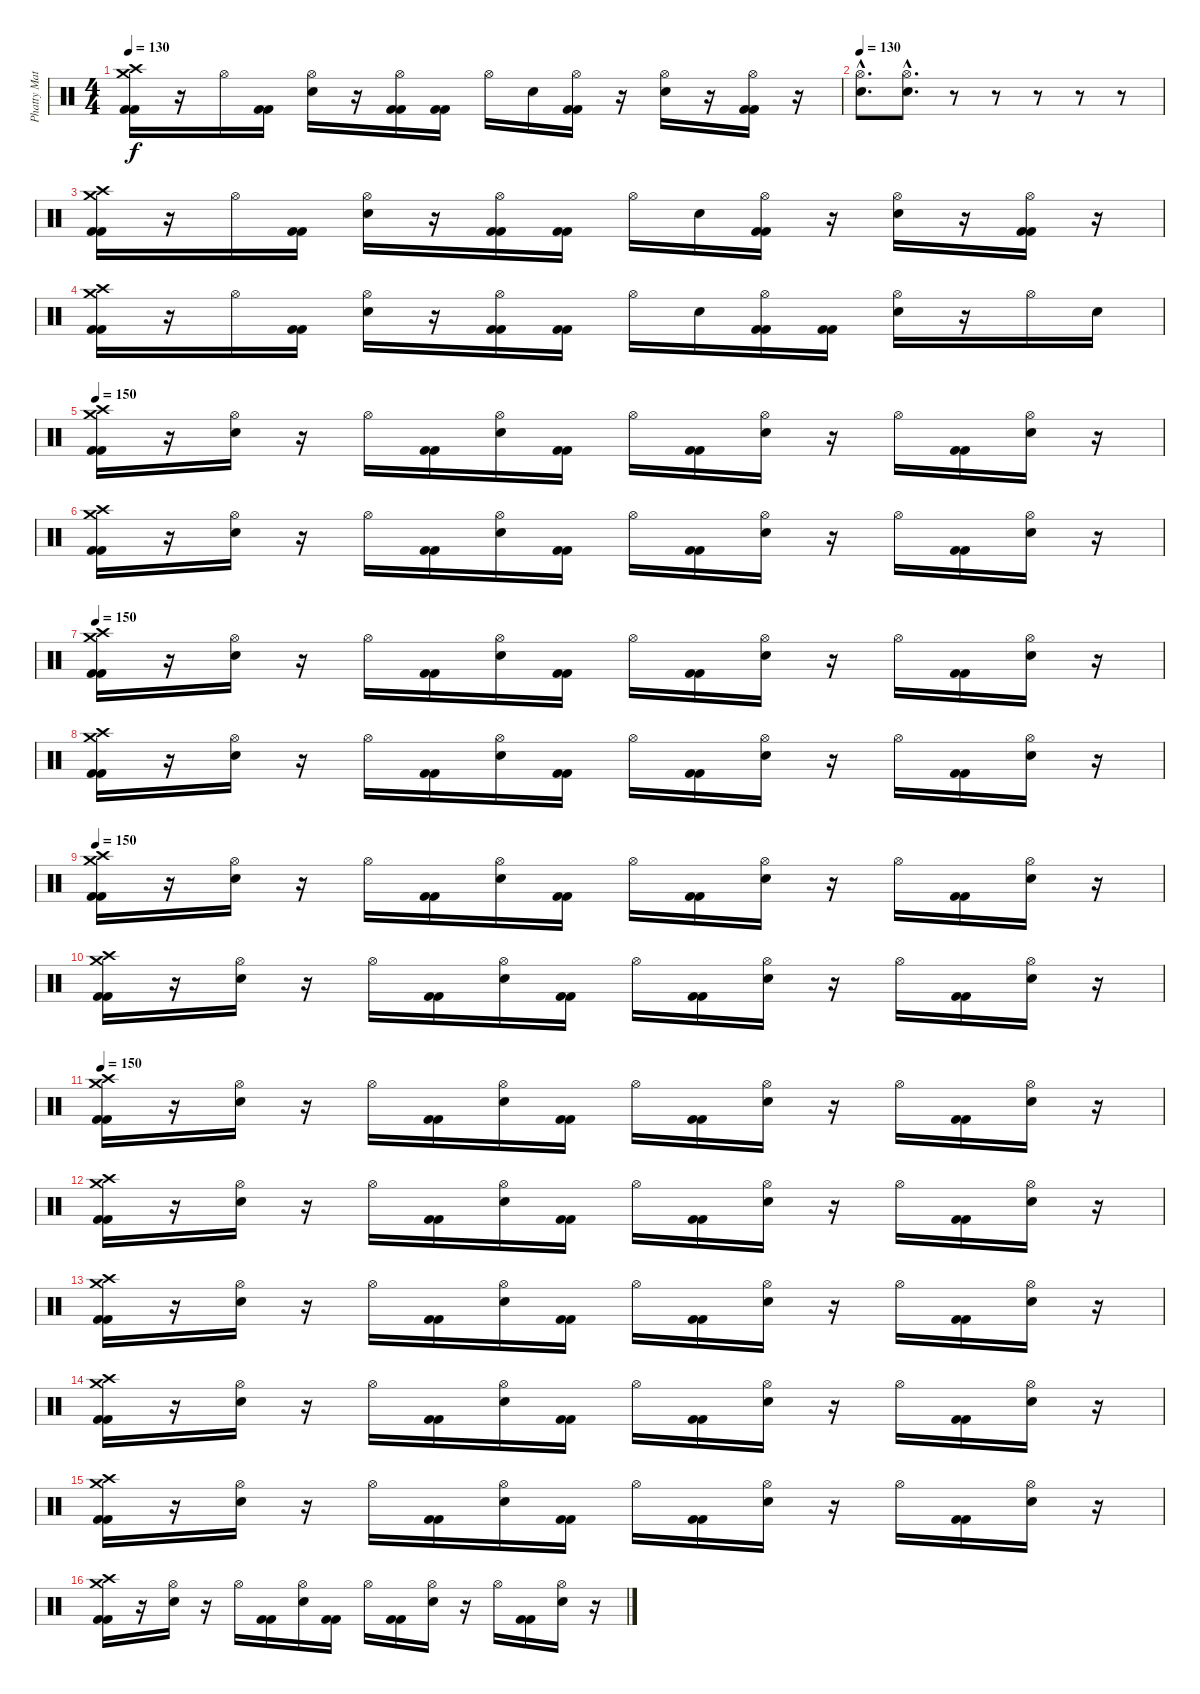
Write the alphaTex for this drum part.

\track ("Phatty Matty Withrow (Drums)" "Phatty Mat") {instrument percussion}
\staff {score}
\articulation defaults
\ts (4 4)
\tempo 130
\clef neutral
\ks c
("Crash high (hit)" "Crash medium (hit)" "Kick (hit) 2" "Kick (hit) 2").16{dy f} r.16 "Hi-Hat (open)".16 ("Kick (hit) 2" "Kick (hit) 2").16 ("Hi-Hat (open)" "Electric Snare (hit)").16 r.16 ("Hi-Hat (open)" "Kick (hit) 2" "Kick (hit) 2").16 ("Kick (hit) 2" "Kick (hit) 2").16 "Hi-Hat (open)".16 "Electric Snare (hit)".16 ("Hi-Hat (open)" "Kick (hit) 2" "Kick (hit) 2").16 r.16 ("Hi-Hat (open)" "Electric Snare (hit)").16 r.16 ("Hi-Hat (open)" "Kick (hit) 2" "Kick (hit) 2").16 r.16 |
\tempo 130
("Hi-Hat (open)"{hac} "Electric Snare (hit)"{hac}).8{d} ("Hi-Hat (open)"{hac} "Electric Snare (hit)"{hac}).8{d} r.8 r.8 r.8 r.8 r.8 |
("Crash high (hit)" "Crash medium (hit)" "Kick (hit) 2" "Kick (hit) 2").16 r.16 "Hi-Hat (open)".16 ("Kick (hit) 2" "Kick (hit) 2").16 ("Hi-Hat (open)" "Electric Snare (hit)").16 r.16 ("Hi-Hat (open)" "Kick (hit) 2" "Kick (hit) 2").16 ("Kick (hit) 2" "Kick (hit) 2").16 "Hi-Hat (open)".16 "Electric Snare (hit)".16 ("Hi-Hat (open)" "Kick (hit) 2" "Kick (hit) 2").16 r.16 ("Hi-Hat (open)" "Electric Snare (hit)").16 r.16 ("Hi-Hat (open)" "Kick (hit) 2" "Kick (hit) 2").16 r.16 |
("Crash high (hit)" "Crash medium (hit)" "Kick (hit) 2" "Kick (hit) 2").16 r.16 "Hi-Hat (open)".16 ("Kick (hit) 2" "Kick (hit) 2").16 ("Hi-Hat (open)" "Electric Snare (hit)").16 r.16 ("Hi-Hat (open)" "Kick (hit) 2" "Kick (hit) 2").16 ("Kick (hit) 2" "Kick (hit) 2").16 "Hi-Hat (open)".16 "Electric Snare (hit)".16 ("Hi-Hat (open)" "Kick (hit) 2" "Kick (hit) 2").16 ("Kick (hit) 2" "Kick (hit) 2").16 ("Hi-Hat (open)" "Electric Snare (hit)").16 r.16 "Hi-Hat (open)".16 "Electric Snare (hit)".16 |
\tempo 150
("Crash high (hit)" "Crash medium (hit)" "Kick (hit) 2" "Kick (hit) 2").16 r.16 ("Hi-Hat (open)" "Electric Snare (hit)").16 r.16 "Hi-Hat (open)".16 ("Kick (hit) 2" "Kick (hit) 2").16 ("Hi-Hat (open)" "Electric Snare (hit)").16 ("Kick (hit) 2" "Kick (hit) 2").16 "Hi-Hat (open)".16 ("Kick (hit) 2" "Kick (hit) 2").16 ("Hi-Hat (open)" "Electric Snare (hit)").16 r.16 "Hi-Hat (open)".16 ("Kick (hit) 2" "Kick (hit) 2").16 ("Hi-Hat (open)" "Electric Snare (hit)").16 r.16 |
("Crash high (hit)" "Crash medium (hit)" "Kick (hit) 2" "Kick (hit) 2").16 r.16 ("Hi-Hat (open)" "Electric Snare (hit)").16 r.16 "Hi-Hat (open)".16 ("Kick (hit) 2" "Kick (hit) 2").16 ("Hi-Hat (open)" "Electric Snare (hit)").16 ("Kick (hit) 2" "Kick (hit) 2").16 "Hi-Hat (open)".16 ("Kick (hit) 2" "Kick (hit) 2").16 ("Hi-Hat (open)" "Electric Snare (hit)").16 r.16 "Hi-Hat (open)".16 ("Kick (hit) 2" "Kick (hit) 2").16 ("Hi-Hat (open)" "Electric Snare (hit)").16 r.16 |
\tempo 150
("Crash high (hit)" "Crash medium (hit)" "Kick (hit) 2" "Kick (hit) 2").16 r.16 ("Hi-Hat (open)" "Electric Snare (hit)").16 r.16 "Hi-Hat (open)".16 ("Kick (hit) 2" "Kick (hit) 2").16 ("Hi-Hat (open)" "Electric Snare (hit)").16 ("Kick (hit) 2" "Kick (hit) 2").16 "Hi-Hat (open)".16 ("Kick (hit) 2" "Kick (hit) 2").16 ("Hi-Hat (open)" "Electric Snare (hit)").16 r.16 "Hi-Hat (open)".16 ("Kick (hit) 2" "Kick (hit) 2").16 ("Hi-Hat (open)" "Electric Snare (hit)").16 r.16 |
("Crash high (hit)" "Crash medium (hit)" "Kick (hit) 2" "Kick (hit) 2").16 r.16 ("Hi-Hat (open)" "Electric Snare (hit)").16 r.16 "Hi-Hat (open)".16 ("Kick (hit) 2" "Kick (hit) 2").16 ("Hi-Hat (open)" "Electric Snare (hit)").16 ("Kick (hit) 2" "Kick (hit) 2").16 "Hi-Hat (open)".16 ("Kick (hit) 2" "Kick (hit) 2").16 ("Hi-Hat (open)" "Electric Snare (hit)").16 r.16 "Hi-Hat (open)".16 ("Kick (hit) 2" "Kick (hit) 2").16 ("Hi-Hat (open)" "Electric Snare (hit)").16 r.16 |
\tempo 150
("Crash high (hit)" "Crash medium (hit)" "Kick (hit) 2" "Kick (hit) 2").16 r.16 ("Hi-Hat (open)" "Electric Snare (hit)").16 r.16 "Hi-Hat (open)".16 ("Kick (hit) 2" "Kick (hit) 2").16 ("Hi-Hat (open)" "Electric Snare (hit)").16 ("Kick (hit) 2" "Kick (hit) 2").16 "Hi-Hat (open)".16 ("Kick (hit) 2" "Kick (hit) 2").16 ("Hi-Hat (open)" "Electric Snare (hit)").16 r.16 "Hi-Hat (open)".16 ("Kick (hit) 2" "Kick (hit) 2").16 ("Hi-Hat (open)" "Electric Snare (hit)").16 r.16 |
("Crash high (hit)" "Crash medium (hit)" "Kick (hit) 2" "Kick (hit) 2").16 r.16 ("Hi-Hat (open)" "Electric Snare (hit)").16 r.16 "Hi-Hat (open)".16 ("Kick (hit) 2" "Kick (hit) 2").16 ("Hi-Hat (open)" "Electric Snare (hit)").16 ("Kick (hit) 2" "Kick (hit) 2").16 "Hi-Hat (open)".16 ("Kick (hit) 2" "Kick (hit) 2").16 ("Hi-Hat (open)" "Electric Snare (hit)").16 r.16 "Hi-Hat (open)".16 ("Kick (hit) 2" "Kick (hit) 2").16 ("Hi-Hat (open)" "Electric Snare (hit)").16 r.16 |
\tempo 150
("Crash high (hit)" "Crash medium (hit)" "Kick (hit) 2" "Kick (hit) 2").16 r.16 ("Hi-Hat (open)" "Electric Snare (hit)").16 r.16 "Hi-Hat (open)".16 ("Kick (hit) 2" "Kick (hit) 2").16 ("Hi-Hat (open)" "Electric Snare (hit)").16 ("Kick (hit) 2" "Kick (hit) 2").16 "Hi-Hat (open)".16 ("Kick (hit) 2" "Kick (hit) 2").16 ("Hi-Hat (open)" "Electric Snare (hit)").16 r.16 "Hi-Hat (open)".16 ("Kick (hit) 2" "Kick (hit) 2").16 ("Hi-Hat (open)" "Electric Snare (hit)").16 r.16 |
("Crash high (hit)" "Crash medium (hit)" "Kick (hit) 2" "Kick (hit) 2").16 r.16 ("Hi-Hat (open)" "Electric Snare (hit)").16 r.16 "Hi-Hat (open)".16 ("Kick (hit) 2" "Kick (hit) 2").16 ("Hi-Hat (open)" "Electric Snare (hit)").16 ("Kick (hit) 2" "Kick (hit) 2").16 "Hi-Hat (open)".16 ("Kick (hit) 2" "Kick (hit) 2").16 ("Hi-Hat (open)" "Electric Snare (hit)").16 r.16 "Hi-Hat (open)".16 ("Kick (hit) 2" "Kick (hit) 2").16 ("Hi-Hat (open)" "Electric Snare (hit)").16 r.16 |
("Crash high (hit)" "Crash medium (hit)" "Kick (hit) 2" "Kick (hit) 2").16 r.16 ("Hi-Hat (open)" "Electric Snare (hit)").16 r.16 "Hi-Hat (open)".16 ("Kick (hit) 2" "Kick (hit) 2").16 ("Hi-Hat (open)" "Electric Snare (hit)").16 ("Kick (hit) 2" "Kick (hit) 2").16 "Hi-Hat (open)".16 ("Kick (hit) 2" "Kick (hit) 2").16 ("Hi-Hat (open)" "Electric Snare (hit)").16 r.16 "Hi-Hat (open)".16 ("Kick (hit) 2" "Kick (hit) 2").16 ("Hi-Hat (open)" "Electric Snare (hit)").16 r.16 |
("Crash high (hit)" "Crash medium (hit)" "Kick (hit) 2" "Kick (hit) 2").16 r.16 ("Hi-Hat (open)" "Electric Snare (hit)").16 r.16 "Hi-Hat (open)".16 ("Kick (hit) 2" "Kick (hit) 2").16 ("Hi-Hat (open)" "Electric Snare (hit)").16 ("Kick (hit) 2" "Kick (hit) 2").16 "Hi-Hat (open)".16 ("Kick (hit) 2" "Kick (hit) 2").16 ("Hi-Hat (open)" "Electric Snare (hit)").16 r.16 "Hi-Hat (open)".16 ("Kick (hit) 2" "Kick (hit) 2").16 ("Hi-Hat (open)" "Electric Snare (hit)").16 r.16 |
("Crash high (hit)" "Crash medium (hit)" "Kick (hit) 2" "Kick (hit) 2").16 r.16 ("Hi-Hat (open)" "Electric Snare (hit)").16 r.16 "Hi-Hat (open)".16 ("Kick (hit) 2" "Kick (hit) 2").16 ("Hi-Hat (open)" "Electric Snare (hit)").16 ("Kick (hit) 2" "Kick (hit) 2").16 "Hi-Hat (open)".16 ("Kick (hit) 2" "Kick (hit) 2").16 ("Hi-Hat (open)" "Electric Snare (hit)").16 r.16 "Hi-Hat (open)".16 ("Kick (hit) 2" "Kick (hit) 2").16 ("Hi-Hat (open)" "Electric Snare (hit)").16 r.16 |
("Crash high (hit)" "Crash medium (hit)" "Kick (hit) 2" "Kick (hit) 2").16 r.16 ("Hi-Hat (open)" "Electric Snare (hit)").16 r.16 "Hi-Hat (open)".16 ("Kick (hit) 2" "Kick (hit) 2").16 ("Hi-Hat (open)" "Electric Snare (hit)").16 ("Kick (hit) 2" "Kick (hit) 2").16 "Hi-Hat (open)".16 ("Kick (hit) 2" "Kick (hit) 2").16 ("Hi-Hat (open)" "Electric Snare (hit)").16 r.16 "Hi-Hat (open)".16 ("Kick (hit) 2" "Kick (hit) 2").16 ("Hi-Hat (open)" "Electric Snare (hit)").16 r.16
